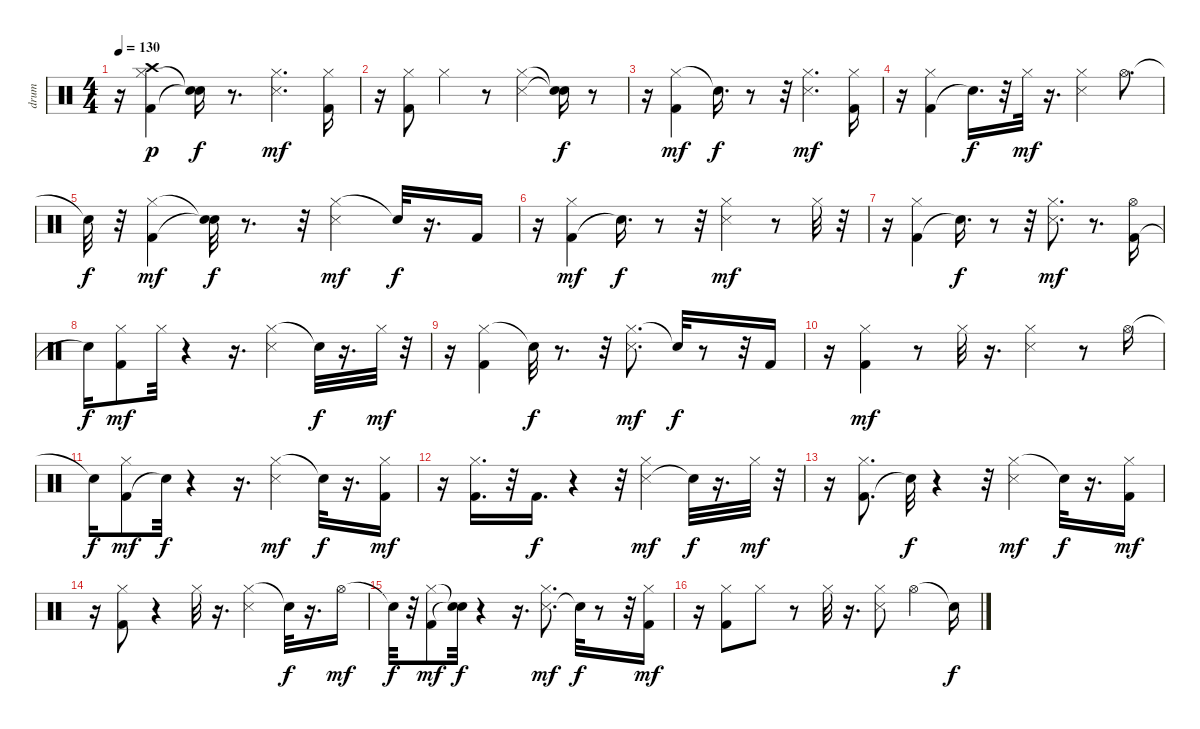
\track ("drum" "drum") {instrument percussion}
\staff {score}
\articulation defaults
\ts (4 4)
\tempo 130
\clef neutral
\ks c
r.16{dy mf} ("Kick (hit) 2" "Hi-Hat (closed)" "Crash high (hit)").4{dy p} ("Snare (hit)"{t} "Snare (hit)"{t}).16{dy f} r.8{d} ("Hi-Hat (closed)" "Snare (side stick) 3").4{d dy mf} ("Kick (hit) 2" "Hi-Hat (closed)").16 |
r.16 ("Kick (hit) 2" "Hi-Hat (closed)").8 "Hi-Hat (closed)".4 r.8 ("Hi-Hat (closed)" "Snare (side stick) 3").4 ("Snare (hit)"{t} "Snare (hit)"{t}).16{dy f} r.8 |
r.16 ("Hi-Hat (closed)" "Kick (hit) 2").4{dy mf} "Snare (hit)"{t}.16{d dy f} r.8 r.32 ("Hi-Hat (closed)" "Snare (side stick) 3").4{d dy mf} ("Kick (hit) 2" "Hi-Hat (closed)").16 |
r.16 ("Kick (hit) 2" "Hi-Hat (closed)").4 "Snare (hit)"{t}.16{d dy f} r.32 "Hi-Hat (closed)".32{dy mf} r.16{d} ("Hi-Hat (closed)" "Snare (side stick) 3").4 "Hi-Hat (open)".8{d} |
"Snare (hit)"{t}.32{dy f} r.32 ("Kick (hit) 2" "Hi-Hat (closed)").4{dy mf} ("Snare (hit)"{t} "Snare (hit)"{t}).32{dy f} r.8{d} r.32 ("Hi-Hat (closed)" "Snare (side stick) 3").4{dy mf} "Snare (hit)"{t}.32{dy f} r.16{d} "Kick (hit) 2".16 |
r.16 ("Kick (hit) 2" "Hi-Hat (closed)").4{dy mf} "Snare (hit)"{t}.16{d dy f} r.8 r.32 ("Hi-Hat (closed)" "Snare (side stick) 3").4{dy mf} r.8 "Hi-Hat (closed)".32 r.32 |
r.16 ("Kick (hit) 2" "Hi-Hat (closed)").4 "Snare (hit)"{t}.16{d dy f} r.8 r.32 ("Hi-Hat (closed)" "Snare (side stick) 3").8{d dy mf} r.8{d} ("Kick (hit) 2" "Hi-Hat (open)").16 |
"Snare (hit)"{t}.16{dy f} ("Kick (hit) 2" "Hi-Hat (closed)").8{dy mf} "Hi-Hat (closed)".32 r.4 r.16{d} ("Hi-Hat (closed)" "Snare (side stick) 3").4 "Snare (hit)"{t}.32{dy f} r.16{d} "Hi-Hat (closed)".32{dy mf} r.32 |
r.16 ("Hi-Hat (closed)" "Kick (hit) 2").4 "Snare (hit)"{t}.32{dy f} r.8{d} r.32 ("Hi-Hat (closed)" "Snare (side stick) 3").8{d dy mf} "Snare (hit)"{t}.32{dy f} r.8 r.32 "Kick (hit) 2".16 |
r.16 ("Kick (hit) 2" "Hi-Hat (closed)").4{dy mf} r.8 "Hi-Hat (closed)".32 r.16{d} ("Hi-Hat (closed)" "Snare (side stick) 3").4 r.8 "Hi-Hat (open)".16 |
"Snare (hit)"{t}.16{dy f} ("Kick (hit) 2" "Hi-Hat (closed)").8{dy mf} "Snare (hit)"{t}.32{dy f} r.4 r.16{d} ("Hi-Hat (closed)" "Snare (side stick) 3").4{dy mf} "Snare (hit)"{t}.32{dy f} r.16{d} ("Kick (hit) 2" "Hi-Hat (closed)").16{dy mf} |
r.16 ("Hi-Hat (closed)" "Kick (hit) 2").16{d} r.32 "Kick (hit) 2".16{d dy f} r.4 r.32 ("Snare (side stick) 3" "Hi-Hat (closed)").4{dy mf} "Snare (hit)"{t}.32{dy f} r.16{d} "Hi-Hat (closed)".32{dy mf} r.32 |
r.16 ("Kick (hit) 2" "Hi-Hat (closed)").8{d} "Snare (hit)"{t}.32{dy f} r.4 r.32 ("Hi-Hat (closed)" "Snare (side stick) 3").4{dy mf} "Snare (hit)"{t}.32{dy f} r.16{d} ("Kick (hit) 2" "Hi-Hat (closed)").16{dy mf} |
r.16 ("Kick (hit) 2" "Hi-Hat (closed)").8 r.4 "Hi-Hat (closed)".32 r.16{d} ("Hi-Hat (closed)" "Snare (side stick) 3").4 "Snare (hit)"{t}.32{dy f} r.16{d} "Hi-Hat (open)".16{dy mf} |
"Snare (hit)"{t}.32{dy f} r.32 ("Kick (hit) 2" "Hi-Hat (closed)").8{dy mf} ("Snare (hit)"{t} "Snare (hit)"{t}).32{dy f} r.4 r.16{d} ("Snare (side stick) 3" "Hi-Hat (closed)").8{d dy mf} "Snare (hit)"{t}.32{dy f} r.8 r.32 ("Kick (hit) 2" "Hi-Hat (closed)").16{dy mf} |
r.16 ("Kick (hit) 2" "Hi-Hat (closed)").8 "Hi-Hat (closed)".8 r.8 "Hi-Hat (closed)".32 r.16{d} ("Hi-Hat (closed)" "Snare (side stick) 3").8 "Hi-Hat (open)".4 "Snare (hit)"{t}.16{dy f}
